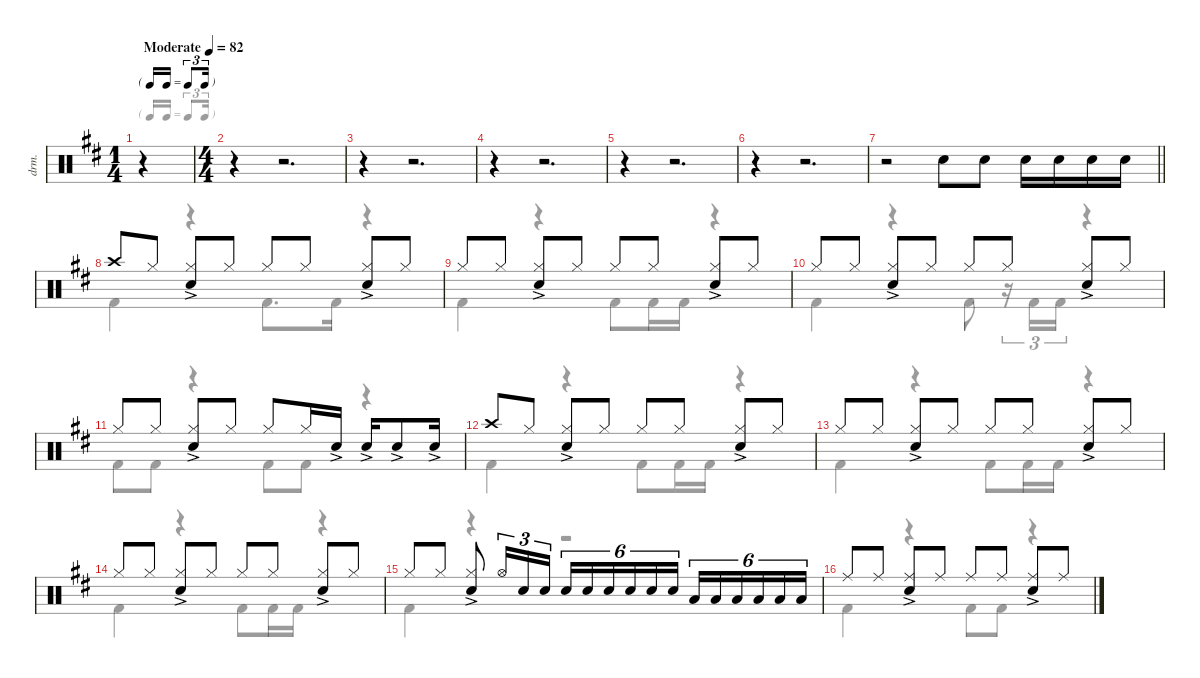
\defaultSystemsLayout 4
\hideDynamics
\bracketExtendMode nobrackets
\otherSystemsTrackNameOrientation horizontal
\track ("Buddy" "drm.") {instrument percussion}
\staff {score}
\articulation defaults
\voice
\ts (1 4)
\beaming (8 2)
\tf triplet16th
\tempo (82 "Moderate")
\clef neutral
\ks d
r.4{dy f beam Up} |
\ts (4 4)
\beaming (8 2 2 2 2)
r.4{beam Down} r.2{d beam Down} |
r.4{beam Down} r.2{d beam Down} |
r.4{beam Down} r.2{d beam Down} |
r.4{beam Down} r.2{d beam Down} |
r.4{beam Down} r.2{d beam Down} |
\barLineRight lightlight
r.2{beam Down} "Snare (hit) 2"{acc forcenatural}.8{beam Down} "Snare (hit) 2"{acc forcenatural}.8{beam Down} "Snare (hit) 2"{acc forcenatural}.16{beam Down} "Snare (hit) 2"{acc forcenatural}.16{beam Down} "Snare (hit) 2"{acc forcenatural}.16{beam Down} "Snare (hit) 2"{acc forcenatural}.16{beam Down} |
"Crash high (hit)"{acc forcenatural}.8{beam Up} "Hi-Hat (closed)"{acc forcenatural}.8{beam Up} ("Hi-Hat (closed)"{ac acc forcenatural} "Snare (hit) 2"{ac acc forcenatural}).8{beam Up} "Hi-Hat (closed)"{acc forcenatural}.8{beam Up} "Hi-Hat (closed)"{acc forcenatural}.8{beam Up} "Hi-Hat (closed)"{acc forcenatural}.8{beam Up} ("Hi-Hat (closed)"{ac acc forcenatural} "Snare (hit) 2"{ac acc forcenatural}).8{beam Up} "Hi-Hat (closed)"{acc forcenatural}.8{beam Up} |
"Hi-Hat (closed)"{acc forcenatural}.8{beam Up} "Hi-Hat (closed)"{acc forcenatural}.8{beam Up} ("Hi-Hat (closed)"{ac acc forcenatural} "Snare (hit) 2"{ac acc forcenatural}).8{beam Up} "Hi-Hat (closed)"{acc forcenatural}.8{beam Up} "Hi-Hat (closed)"{acc forcenatural}.8{beam Up} "Hi-Hat (closed)"{acc forcenatural}.8{beam Up} ("Hi-Hat (closed)"{ac acc forcenatural} "Snare (hit) 2"{ac acc forcenatural}).8{beam Up} "Hi-Hat (closed)"{acc forcenatural}.8{beam Up} |
"Hi-Hat (closed)"{acc forcenatural}.8{beam Up} "Hi-Hat (closed)"{acc forcenatural}.8{beam Up} ("Hi-Hat (closed)"{ac acc forcenatural} "Snare (hit) 2"{ac acc forcenatural}).8{beam Up} "Hi-Hat (closed)"{acc forcenatural}.8{beam Up} "Hi-Hat (closed)"{acc forcenatural}.8{beam Up} "Hi-Hat (closed)"{acc forcenatural}.8{beam Up} ("Hi-Hat (closed)"{ac acc forcenatural} "Snare (hit) 2"{ac acc forcenatural}).8{beam Up} "Hi-Hat (closed)"{acc forcenatural}.8{beam Up} |
"Hi-Hat (closed)"{acc forcenatural}.8{beam Up} "Hi-Hat (closed)"{acc forcenatural}.8{beam Up} ("Hi-Hat (closed)"{ac acc forcenatural} "Snare (hit) 2"{ac acc forcenatural}).8{beam Up} "Hi-Hat (closed)"{acc forcenatural}.8{beam Up} "Hi-Hat (closed)"{acc forcenatural}.8{beam Up} "Hi-Hat (closed)"{acc forcenatural}.16{beam Up} "Snare (hit) 2"{ac acc forcenatural}.16{beam Up} "Snare (hit) 2"{ac acc forcenatural}.16{beam Up} "Snare (hit) 2"{ac acc forcenatural}.8{beam Up} "Snare (hit) 2"{ac acc forcenatural}.16{beam Up} |
"Crash high (hit)"{acc forcenatural}.8{beam Up} "Hi-Hat (closed)"{acc forcenatural}.8{beam Up} ("Hi-Hat (closed)"{ac acc forcenatural} "Snare (hit) 2"{ac acc forcenatural}).8{beam Up} "Hi-Hat (closed)"{acc forcenatural}.8{beam Up} "Hi-Hat (closed)"{acc forcenatural}.8{beam Up} "Hi-Hat (closed)"{acc forcenatural}.8{beam Up} ("Hi-Hat (closed)"{ac acc forcenatural} "Snare (hit) 2"{ac acc forcenatural}).8{beam Up} "Hi-Hat (closed)"{acc forcenatural}.8{beam Up} |
"Hi-Hat (closed)"{acc forcenatural}.8{beam Up} "Hi-Hat (closed)"{acc forcenatural}.8{beam Up} ("Hi-Hat (closed)"{ac acc forcenatural} "Snare (hit) 2"{ac acc forcenatural}).8{beam Up} "Hi-Hat (closed)"{acc forcenatural}.8{beam Up} "Hi-Hat (closed)"{acc forcenatural}.8{beam Up} "Hi-Hat (closed)"{acc forcenatural}.8{beam Up} ("Hi-Hat (closed)"{ac acc forcenatural} "Snare (hit) 2"{ac acc forcenatural}).8{beam Up} "Hi-Hat (closed)"{acc forcenatural}.8{beam Up} |
"Hi-Hat (closed)"{acc forcenatural}.8{beam Up} "Hi-Hat (closed)"{acc forcenatural}.8{beam Up} ("Hi-Hat (closed)"{ac acc forcenatural} "Snare (hit) 2"{ac acc forcenatural}).8{beam Up} "Hi-Hat (closed)"{acc forcenatural}.8{beam Up} "Hi-Hat (closed)"{acc forcenatural}.8{beam Up} "Hi-Hat (closed)"{acc forcenatural}.8{beam Up} ("Hi-Hat (closed)"{ac acc forcenatural} "Snare (hit) 2"{ac acc forcenatural}).8{beam Up} "Hi-Hat (closed)"{acc forcenatural}.8{beam Up} |
"Hi-Hat (closed)"{acc forcenatural}.8{beam Up} "Hi-Hat (closed)"{acc forcenatural}.8{beam Up} ("Hi-Hat (closed)"{ac acc forcenatural} "Snare (hit) 2"{ac acc forcenatural}).8{beam Up} "Hi-Hat (open)"{acc forcenatural}.16{tu (3 2) beam Up} "Snare (hit) 2"{acc forcenatural}.16{tu (3 2) beam Up} "Snare (hit) 2"{acc forcenatural}.16{tu (3 2) beam Up} "Snare (hit) 2"{acc forcenatural}.16{tu (6 4) beam Up} "Snare (hit) 2"{acc forcenatural}.16{tu (6 4) dy mf beam Up} "Snare (hit) 2"{acc forcenatural}.16{tu (6 4) beam Up} "Snare (hit) 2"{acc forcenatural}.16{tu (6 4) dy f beam Up} "Snare (hit) 2"{acc forcenatural}.16{tu (6 4) dy mf beam Up} "Snare (hit) 2"{acc forcenatural}.16{tu (6 4) beam Up} "Low Tom (hit)"{acc forcenatural}.16{tu (6 4) dy f beam Up} "Low Tom (hit)"{acc forcenatural}.16{tu (6 4) dy mf beam Up} "Low Tom (hit)"{acc forcenatural}.16{tu (6 4) beam Up} "Low Floor Tom (hit)"{acc forcenatural}.16{tu (6 4) dy f beam Up} "Low Floor Tom (hit)"{acc forcenatural}.16{tu (6 4) dy mf beam Up} "Low Floor Tom (hit)"{acc forcenatural}.16{tu (6 4) beam Up} |
"Ride (middle)"{acc forcenatural}.8{dy f beam Up} "Ride (middle)"{acc forcenatural}.8{beam Up} ("Ride (middle)"{ac acc forcenatural} "Snare (hit) 2"{ac acc forcenatural}).8{beam Up} "Ride (middle)"{acc forcenatural}.8{beam Up} "Ride (middle)"{acc forcenatural}.8{beam Up} "Ride (middle)"{acc forcenatural}.8{beam Up} ("Ride (middle)"{ac acc forcenatural} "Snare (hit) 2"{ac acc forcenatural}).8{beam Up} "Ride (middle)"{acc forcenatural}.8{beam Up}
\voice
\clef neutral
\ottava regular
\simile none
\ks d
r.4{dy f beam Down} |
|
|
|
|
|
\barLineRight lightlight
|
"Kick (hit) 2"{acc forcenatural}.4{beam Down} r.4{beam Down} "Kick (hit) 2"{acc forcenatural}.8{d beam Down} "Kick (hit) 2"{acc forcenatural}.16{beam Down} r.4{beam Down} |
"Kick (hit) 2"{acc forcenatural}.4{beam Down} r.4{beam Down} "Kick (hit) 2"{acc forcenatural}.8{beam Down} "Kick (hit) 2"{acc forcenatural}.16{beam Down} "Kick (hit) 2"{acc forcenatural}.16{beam Down} r.4{beam Down} |
"Kick (hit) 2"{acc forcenatural}.4{beam Down} r.4{beam Down} "Kick (hit) 2"{acc forcenatural}.8{beam Down} r.16{tu (3 2) beam Down} "Kick (hit) 2"{acc forcenatural}.16{tu (3 2) beam Down} "Kick (hit) 2"{acc forcenatural}.16{tu (3 2) beam Down} r.4{beam Down} |
"Kick (hit) 2"{acc forcenatural}.8{beam Down} "Kick (hit) 2"{acc forcenatural}.8{beam Down} r.4{beam Down} "Kick (hit) 2"{acc forcenatural}.8{beam Down} "Kick (hit) 2"{acc forcenatural}.8{beam Down} r.4{beam Down} |
"Kick (hit) 2"{acc forcenatural}.4{beam Down} r.4{beam Down} "Kick (hit) 2"{acc forcenatural}.8{beam Down} "Kick (hit) 2"{acc forcenatural}.16{beam Down} "Kick (hit) 2"{acc forcenatural}.16{beam Down} r.4{beam Down} |
"Kick (hit) 2"{acc forcenatural}.4{beam Down} r.4{beam Down} "Kick (hit) 2"{acc forcenatural}.8{beam Down} "Kick (hit) 2"{acc forcenatural}.16{beam Down} "Kick (hit) 2"{acc forcenatural}.16{beam Down} r.4{beam Down} |
"Kick (hit) 2"{acc forcenatural}.4{beam Down} r.4{beam Down} "Kick (hit) 2"{acc forcenatural}.8{beam Down} "Kick (hit) 2"{acc forcenatural}.16{beam Down} "Kick (hit) 2"{acc forcenatural}.16{beam Down} r.4{beam Down} |
"Kick (hit) 2"{acc forcenatural}.4{beam Down} r.4{beam Down} r.2{beam Down} |
"Kick (hit) 2"{acc forcenatural}.4{beam Down} r.4{beam Down} "Kick (hit) 2"{acc forcenatural}.8{beam Down} "Kick (hit) 2"{acc forcenatural}.8{beam Down} r.4{beam Down}
